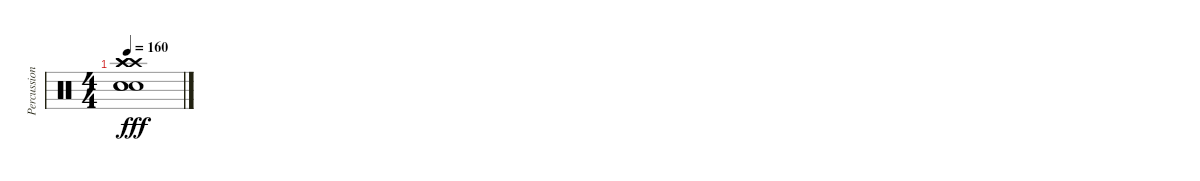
\track ("Percussions" "Percussion") {instrument percussion}
\staff {score}
\articulation defaults
\ts (4 4)
\tempo 160
\clef neutral
\ks c
("Crash high (hit)" "Crash high (hit)" "Crash high (hit)" "Snare (hit) 2" "Snare (hit) 2" "Snare (hit) 2").1{dy fff}
